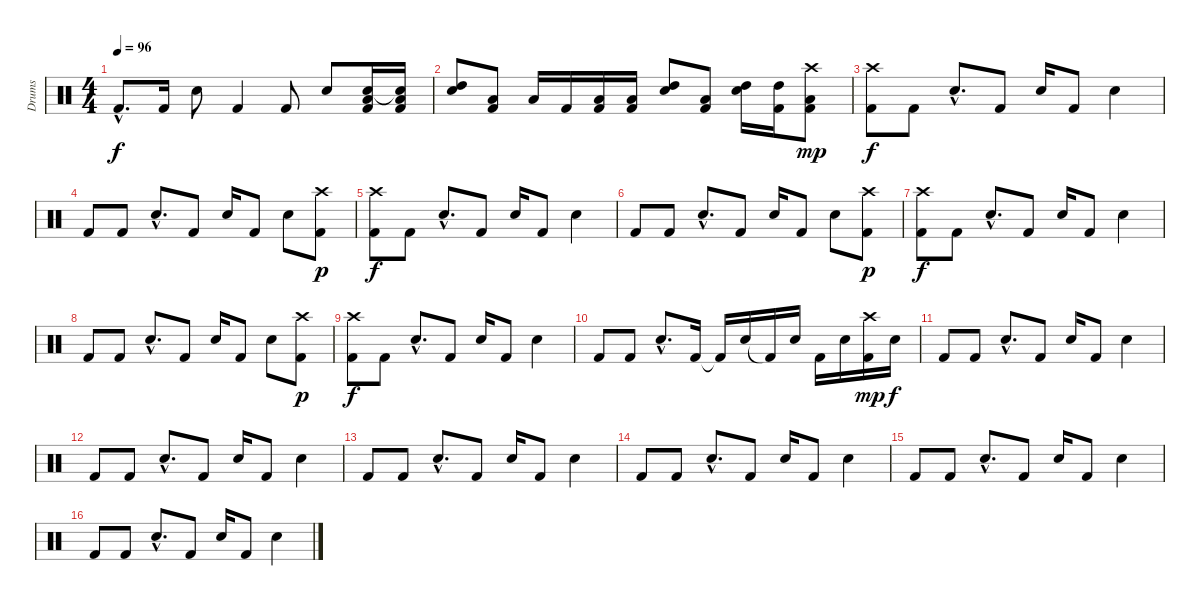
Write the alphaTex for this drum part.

\track ("Drums" "Drums") {instrument percussion}
\staff {score}
\articulation defaults
\ts (4 4)
\tempo 96
\clef neutral
\ks c "Kick (hit) 2"{hac}.8{d dy f} "Kick (hit) 2".16 "Snare (hit) 2".8 "Kick (hit) 2".4 "Kick (hit) 2".8 "Snare (hit) 2".8
("Kick (hit) 2" "Low Tom (hit)" "Snare (hit)").16 ("Kick (hit) 2" "Low Tom (hit)" "Snare (hit)"{t}).16 |
("Snare (hit) 2" "High Tom (hit)").8 ("Kick (hit) 2" "Low Tom (hit)").8 "Low Tom (hit)".16 "Kick (hit) 2".16 ("Kick (hit) 2" "Low Tom (hit)").16 ("Kick (hit) 2" "Low Tom (hit)").16 ("Snare (hit) 2" "High Tom (hit)").8 ("Kick (hit) 2" "Low Tom (hit)").8 ("Snare (hit) 2" "High Tom (hit)").16 ("Kick (hit) 2" "High Tom (hit)").16 ("Crash high (hit)" "Kick (hit) 2" "Low Tom (hit)").8{dy mp} |
("Crash high (hit)" "Kick (hit) 2").8{dy f} "Kick (hit) 2".8 "Snare (hit) 2"{hac}.8{d} "Kick (hit) 2".8 "Snare (hit) 2".16 "Kick (hit) 2".8 "Snare (hit) 2".4 |
"Kick (hit) 2".8 "Kick (hit) 2".8 "Snare (hit) 2"{hac}.8{d} "Kick (hit) 2".8 "Snare (hit) 2".16 "Kick (hit) 2".8 "Snare (hit) 2".8 ("Crash high (hit)" "Kick (hit) 2").8{dy p} |
("Crash high (hit)" "Kick (hit) 2").8{dy f} "Kick (hit) 2".8 "Snare (hit) 2"{hac}.8{d} "Kick (hit) 2".8 "Snare (hit) 2".16 "Kick (hit) 2".8 "Snare (hit) 2".4 |
"Kick (hit) 2".8 "Kick (hit) 2".8 "Snare (hit) 2"{hac}.8{d} "Kick (hit) 2".8 "Snare (hit) 2".16 "Kick (hit) 2".8 "Snare (hit) 2".8 ("Crash high (hit)" "Kick (hit) 2").8{dy p} |
("Crash high (hit)" "Kick (hit) 2").8{dy f} "Kick (hit) 2".8 "Snare (hit) 2"{hac}.8{d} "Kick (hit) 2".8 "Snare (hit) 2".16 "Kick (hit) 2".8 "Snare (hit) 2".4 |
"Kick (hit) 2".8 "Kick (hit) 2".8 "Snare (hit) 2"{hac}.8{d} "Kick (hit) 2".8 "Snare (hit) 2".16 "Kick (hit) 2".8 "Snare (hit) 2".8 ("Crash high (hit)" "Kick (hit) 2").8{dy p} |
("Crash high (hit)" "Kick (hit) 2").8{dy f} "Kick (hit) 2".8 "Snare (hit) 2"{hac}.8{d} "Kick (hit) 2".8 "Snare (hit) 2".16 "Kick (hit) 2".8 "Snare (hit) 2".4 |
"Kick (hit) 2".8 "Kick (hit) 2".8 "Snare (hit) 2"{hac}.8{d} "Kick (hit) 2".16 "Kick (hit) 2"{t}.16 "Snare (hit) 2".16 "Kick (hit) 2"{t}.16 "Snare (hit) 2".16 "Kick (hit) 2".16 "Snare (hit) 2".16 ("Crash high (hit)" "Kick (hit) 2").16{dy mp} "Snare (hit) 2".16{dy f} |
"Kick (hit) 2".8 "Kick (hit) 2".8 "Snare (hit) 2"{hac}.8{d} "Kick (hit) 2".8 "Snare (hit) 2".16 "Kick (hit) 2".8 "Snare (hit) 2".4 |
"Kick (hit) 2".8 "Kick (hit) 2".8 "Snare (hit) 2"{hac}.8{d} "Kick (hit) 2".8 "Snare (hit) 2".16 "Kick (hit) 2".8 "Snare (hit) 2".4 |
"Kick (hit) 2".8 "Kick (hit) 2".8 "Snare (hit) 2"{hac}.8{d} "Kick (hit) 2".8 "Snare (hit) 2".16 "Kick (hit) 2".8 "Snare (hit) 2".4 |
"Kick (hit) 2".8 "Kick (hit) 2".8 "Snare (hit) 2"{hac}.8{d} "Kick (hit) 2".8 "Snare (hit) 2".16 "Kick (hit) 2".8 "Snare (hit) 2".4 |
"Kick (hit) 2".8 "Kick (hit) 2".8 "Snare (hit) 2"{hac}.8{d} "Kick (hit) 2".8 "Snare (hit) 2".16 "Kick (hit) 2".8 "Snare (hit) 2".4 |
"Kick (hit) 2".8 "Kick (hit) 2".8 "Snare (hit) 2"{hac}.8{d} "Kick (hit) 2".8 "Snare (hit) 2".16 "Kick (hit) 2".8 "Snare (hit) 2".4
